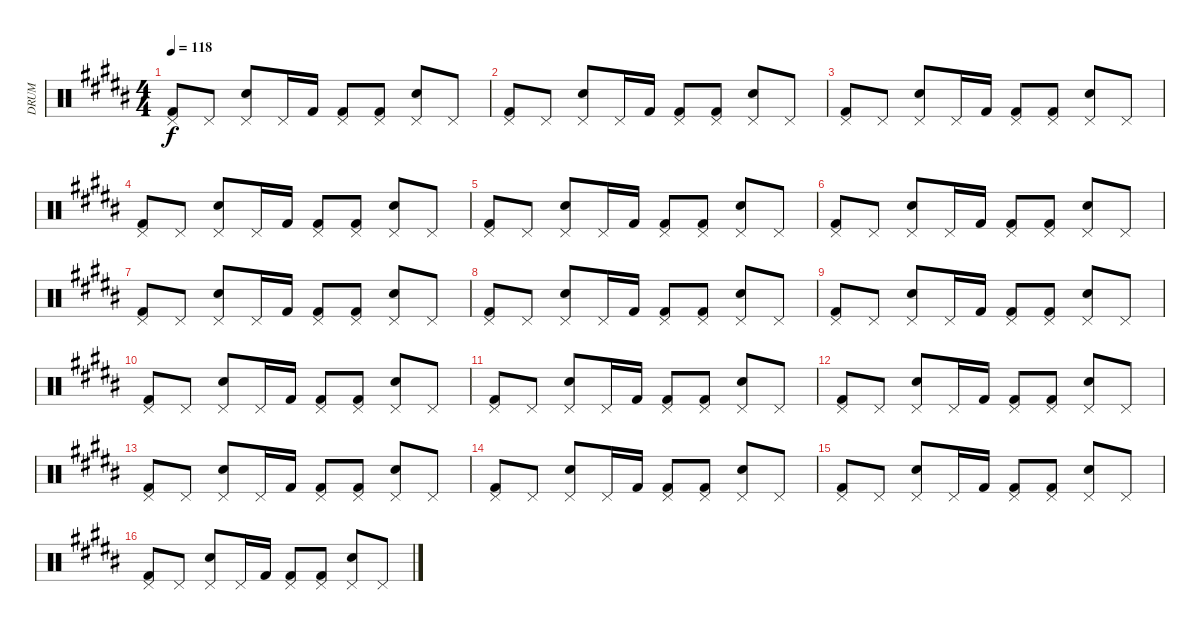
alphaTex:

\track ("DRUM" "DRUM") {instrument percussion}
\staff {score}
\articulation defaults
\ts (4 4)
\tempo 118
\clef neutral
\ks b
("Pedal Hi-Hat (hit)" "Kick (hit) 2").8{dy f} "Pedal Hi-Hat (hit)".8 ("Pedal Hi-Hat (hit)" "Electric Snare (hit)").8 "Pedal Hi-Hat (hit)".16 "Kick (hit) 2".16 ("Pedal Hi-Hat (hit)" "Kick (hit) 2").8 ("Pedal Hi-Hat (hit)" "Kick (hit) 2").8 ("Pedal Hi-Hat (hit)" "Electric Snare (hit)").8 "Pedal Hi-Hat (hit)".8 |
("Pedal Hi-Hat (hit)" "Kick (hit) 2").8 "Pedal Hi-Hat (hit)".8 ("Pedal Hi-Hat (hit)" "Electric Snare (hit)").8 "Pedal Hi-Hat (hit)".16 "Kick (hit) 2".16 ("Pedal Hi-Hat (hit)" "Kick (hit) 2").8 ("Pedal Hi-Hat (hit)" "Kick (hit) 2").8 ("Pedal Hi-Hat (hit)" "Electric Snare (hit)").8 "Pedal Hi-Hat (hit)".8 |
("Pedal Hi-Hat (hit)" "Kick (hit) 2").8 "Pedal Hi-Hat (hit)".8 ("Pedal Hi-Hat (hit)" "Electric Snare (hit)").8 "Pedal Hi-Hat (hit)".16 "Kick (hit) 2".16 ("Pedal Hi-Hat (hit)" "Kick (hit) 2").8 ("Pedal Hi-Hat (hit)" "Kick (hit) 2").8 ("Pedal Hi-Hat (hit)" "Electric Snare (hit)").8 "Pedal Hi-Hat (hit)".8 |
("Pedal Hi-Hat (hit)" "Kick (hit) 2").8 "Pedal Hi-Hat (hit)".8 ("Pedal Hi-Hat (hit)" "Electric Snare (hit)").8 "Pedal Hi-Hat (hit)".16 "Kick (hit) 2".16 ("Pedal Hi-Hat (hit)" "Kick (hit) 2").8 ("Pedal Hi-Hat (hit)" "Kick (hit) 2").8 ("Pedal Hi-Hat (hit)" "Electric Snare (hit)").8 "Pedal Hi-Hat (hit)".8 |
("Pedal Hi-Hat (hit)" "Kick (hit) 2").8 "Pedal Hi-Hat (hit)".8 ("Pedal Hi-Hat (hit)" "Electric Snare (hit)").8 "Pedal Hi-Hat (hit)".16 "Kick (hit) 2".16 ("Pedal Hi-Hat (hit)" "Kick (hit) 2").8 ("Pedal Hi-Hat (hit)" "Kick (hit) 2").8 ("Pedal Hi-Hat (hit)" "Electric Snare (hit)").8 "Pedal Hi-Hat (hit)".8 |
("Pedal Hi-Hat (hit)" "Kick (hit) 2").8 "Pedal Hi-Hat (hit)".8 ("Pedal Hi-Hat (hit)" "Electric Snare (hit)").8 "Pedal Hi-Hat (hit)".16 "Kick (hit) 2".16 ("Pedal Hi-Hat (hit)" "Kick (hit) 2").8 ("Pedal Hi-Hat (hit)" "Kick (hit) 2").8 ("Pedal Hi-Hat (hit)" "Electric Snare (hit)").8 "Pedal Hi-Hat (hit)".8 |
("Pedal Hi-Hat (hit)" "Kick (hit) 2").8 "Pedal Hi-Hat (hit)".8 ("Pedal Hi-Hat (hit)" "Electric Snare (hit)").8 "Pedal Hi-Hat (hit)".16 "Kick (hit) 2".16 ("Pedal Hi-Hat (hit)" "Kick (hit) 2").8 ("Pedal Hi-Hat (hit)" "Kick (hit) 2").8 ("Pedal Hi-Hat (hit)" "Electric Snare (hit)").8 "Pedal Hi-Hat (hit)".8 |
("Pedal Hi-Hat (hit)" "Kick (hit) 2").8 "Pedal Hi-Hat (hit)".8 ("Pedal Hi-Hat (hit)" "Electric Snare (hit)").8 "Pedal Hi-Hat (hit)".16 "Kick (hit) 2".16 ("Pedal Hi-Hat (hit)" "Kick (hit) 2").8 ("Pedal Hi-Hat (hit)" "Kick (hit) 2").8 ("Pedal Hi-Hat (hit)" "Electric Snare (hit)").8 "Pedal Hi-Hat (hit)".8 |
("Pedal Hi-Hat (hit)" "Kick (hit) 2").8 "Pedal Hi-Hat (hit)".8 ("Pedal Hi-Hat (hit)" "Electric Snare (hit)").8 "Pedal Hi-Hat (hit)".16 "Kick (hit) 2".16 ("Pedal Hi-Hat (hit)" "Kick (hit) 2").8 ("Pedal Hi-Hat (hit)" "Kick (hit) 2").8 ("Pedal Hi-Hat (hit)" "Electric Snare (hit)").8 "Pedal Hi-Hat (hit)".8 |
("Pedal Hi-Hat (hit)" "Kick (hit) 2").8 "Pedal Hi-Hat (hit)".8 ("Pedal Hi-Hat (hit)" "Electric Snare (hit)").8 "Pedal Hi-Hat (hit)".16 "Kick (hit) 2".16 ("Pedal Hi-Hat (hit)" "Kick (hit) 2").8 ("Pedal Hi-Hat (hit)" "Kick (hit) 2").8 ("Pedal Hi-Hat (hit)" "Electric Snare (hit)").8 "Pedal Hi-Hat (hit)".8 |
("Pedal Hi-Hat (hit)" "Kick (hit) 2").8 "Pedal Hi-Hat (hit)".8 ("Pedal Hi-Hat (hit)" "Electric Snare (hit)").8 "Pedal Hi-Hat (hit)".16 "Kick (hit) 2".16 ("Pedal Hi-Hat (hit)" "Kick (hit) 2").8 ("Pedal Hi-Hat (hit)" "Kick (hit) 2").8 ("Pedal Hi-Hat (hit)" "Electric Snare (hit)").8 "Pedal Hi-Hat (hit)".8 |
("Pedal Hi-Hat (hit)" "Kick (hit) 2").8 "Pedal Hi-Hat (hit)".8 ("Pedal Hi-Hat (hit)" "Electric Snare (hit)").8 "Pedal Hi-Hat (hit)".16 "Kick (hit) 2".16 ("Pedal Hi-Hat (hit)" "Kick (hit) 2").8 ("Pedal Hi-Hat (hit)" "Kick (hit) 2").8 ("Pedal Hi-Hat (hit)" "Electric Snare (hit)").8 "Pedal Hi-Hat (hit)".8 |
("Pedal Hi-Hat (hit)" "Kick (hit) 2").8 "Pedal Hi-Hat (hit)".8 ("Pedal Hi-Hat (hit)" "Electric Snare (hit)").8 "Pedal Hi-Hat (hit)".16 "Kick (hit) 2".16 ("Pedal Hi-Hat (hit)" "Kick (hit) 2").8 ("Pedal Hi-Hat (hit)" "Kick (hit) 2").8 ("Pedal Hi-Hat (hit)" "Electric Snare (hit)").8 "Pedal Hi-Hat (hit)".8 |
("Pedal Hi-Hat (hit)" "Kick (hit) 2").8 "Pedal Hi-Hat (hit)".8 ("Pedal Hi-Hat (hit)" "Electric Snare (hit)").8 "Pedal Hi-Hat (hit)".16 "Kick (hit) 2".16 ("Pedal Hi-Hat (hit)" "Kick (hit) 2").8 ("Pedal Hi-Hat (hit)" "Kick (hit) 2").8 ("Pedal Hi-Hat (hit)" "Electric Snare (hit)").8 "Pedal Hi-Hat (hit)".8 |
("Pedal Hi-Hat (hit)" "Kick (hit) 2").8 "Pedal Hi-Hat (hit)".8 ("Pedal Hi-Hat (hit)" "Electric Snare (hit)").8 "Pedal Hi-Hat (hit)".16 "Kick (hit) 2".16 ("Pedal Hi-Hat (hit)" "Kick (hit) 2").8 ("Pedal Hi-Hat (hit)" "Kick (hit) 2").8 ("Pedal Hi-Hat (hit)" "Electric Snare (hit)").8 "Pedal Hi-Hat (hit)".8 |
("Pedal Hi-Hat (hit)" "Kick (hit) 2").8 "Pedal Hi-Hat (hit)".8 ("Pedal Hi-Hat (hit)" "Electric Snare (hit)").8 "Pedal Hi-Hat (hit)".16 "Kick (hit) 2".16 ("Pedal Hi-Hat (hit)" "Kick (hit) 2").8 ("Pedal Hi-Hat (hit)" "Kick (hit) 2").8 ("Pedal Hi-Hat (hit)" "Electric Snare (hit)").8 "Pedal Hi-Hat (hit)".8
